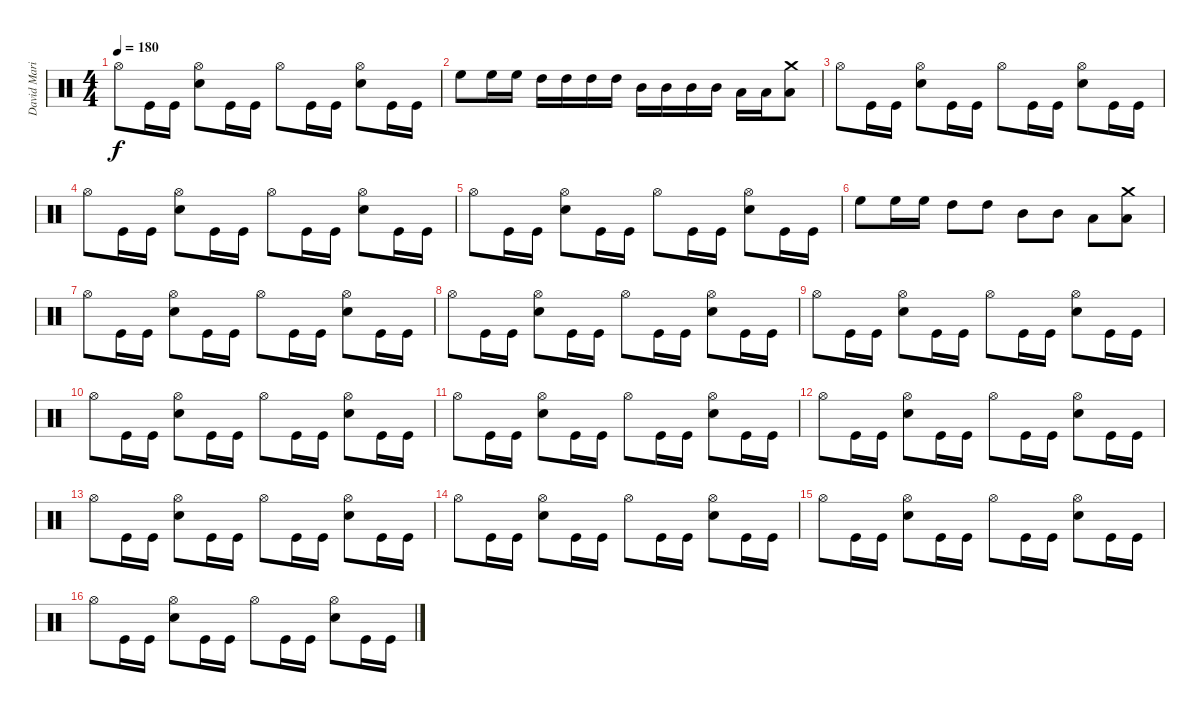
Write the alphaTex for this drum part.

\track ("David Marinero" "David Mari") {instrument percussion}
\staff {score}
\articulation defaults
\ts (4 4)
\tempo 180
\clef neutral
\ks c "Hi-Hat (open)".8{dy f} "Kick (hit)".16 "Kick (hit)".16
("Hi-Hat (open)" "Snare (hit) 2").8 "Kick (hit)".16 "Kick (hit)".16 "Hi-Hat (open)".8 "Kick (hit)".16 "Kick (hit)".16 ("Hi-Hat (open)" "Snare (hit) 2").8 "Kick (hit)".16 "Kick (hit)".16 |
"High Floor Tom (hit)".8 "High Floor Tom (hit)".16 "High Floor Tom (hit)".16 "High Tom (hit)".16 "High Tom (hit)".16 "High Tom (hit)".16 "High Tom (hit)".16 "Mid Tom (hit)".16 "Mid Tom (hit)".16 "Mid Tom (hit)".16 "Mid Tom (hit)".16 "Low Tom (hit)".16 "Low Tom (hit)".16 ("Crash medium (hit)" "Low Tom (hit)").8 |
"Hi-Hat (open)".8 "Kick (hit)".16 "Kick (hit)".16 ("Hi-Hat (open)" "Snare (hit) 2").8 "Kick (hit)".16 "Kick (hit)".16 "Hi-Hat (open)".8 "Kick (hit)".16 "Kick (hit)".16 ("Hi-Hat (open)" "Snare (hit) 2").8 "Kick (hit)".16 "Kick (hit)".16 |
"Hi-Hat (open)".8 "Kick (hit)".16 "Kick (hit)".16 ("Hi-Hat (open)" "Snare (hit) 2").8 "Kick (hit)".16 "Kick (hit)".16 "Hi-Hat (open)".8 "Kick (hit)".16 "Kick (hit)".16 ("Hi-Hat (open)" "Snare (hit) 2").8 "Kick (hit)".16 "Kick (hit)".16 |
"Hi-Hat (open)".8 "Kick (hit)".16 "Kick (hit)".16 ("Hi-Hat (open)" "Snare (hit) 2").8 "Kick (hit)".16 "Kick (hit)".16 "Hi-Hat (open)".8 "Kick (hit)".16 "Kick (hit)".16 ("Hi-Hat (open)" "Snare (hit) 2").8 "Kick (hit)".16 "Kick (hit)".16 |
"High Floor Tom (hit)".8 "High Floor Tom (hit)".16 "High Floor Tom (hit)".16 "High Tom (hit)".8 "High Tom (hit)".8 "Mid Tom (hit)".8 "Mid Tom (hit)".8 "Low Tom (hit)".8 ("Crash medium (hit)" "Low Tom (hit)").8 |
"Hi-Hat (open)".8 "Kick (hit)".16 "Kick (hit)".16 ("Hi-Hat (open)" "Snare (hit) 2").8 "Kick (hit)".16 "Kick (hit)".16 "Hi-Hat (open)".8 "Kick (hit)".16 "Kick (hit)".16 ("Hi-Hat (open)" "Snare (hit) 2").8 "Kick (hit)".16 "Kick (hit)".16 |
"Hi-Hat (open)".8 "Kick (hit)".16 "Kick (hit)".16 ("Hi-Hat (open)" "Snare (hit) 2").8 "Kick (hit)".16 "Kick (hit)".16 "Hi-Hat (open)".8 "Kick (hit)".16 "Kick (hit)".16 ("Hi-Hat (open)" "Snare (hit) 2").8 "Kick (hit)".16 "Kick (hit)".16 |
"Hi-Hat (open)".8 "Kick (hit)".16 "Kick (hit)".16 ("Hi-Hat (open)" "Snare (hit) 2").8 "Kick (hit)".16 "Kick (hit)".16 "Hi-Hat (open)".8 "Kick (hit)".16 "Kick (hit)".16 ("Hi-Hat (open)" "Snare (hit) 2").8 "Kick (hit)".16 "Kick (hit)".16 |
"Hi-Hat (open)".8 "Kick (hit)".16 "Kick (hit)".16 ("Hi-Hat (open)" "Snare (hit) 2").8 "Kick (hit)".16 "Kick (hit)".16 "Hi-Hat (open)".8 "Kick (hit)".16 "Kick (hit)".16 ("Hi-Hat (open)" "Snare (hit) 2").8 "Kick (hit)".16 "Kick (hit)".16 |
"Hi-Hat (open)".8 "Kick (hit)".16 "Kick (hit)".16 ("Hi-Hat (open)" "Snare (hit) 2").8 "Kick (hit)".16 "Kick (hit)".16 "Hi-Hat (open)".8 "Kick (hit)".16 "Kick (hit)".16 ("Hi-Hat (open)" "Snare (hit) 2").8 "Kick (hit)".16 "Kick (hit)".16 |
"Hi-Hat (open)".8 "Kick (hit)".16 "Kick (hit)".16 ("Hi-Hat (open)" "Snare (hit) 2").8 "Kick (hit)".16 "Kick (hit)".16 "Hi-Hat (open)".8 "Kick (hit)".16 "Kick (hit)".16 ("Hi-Hat (open)" "Snare (hit) 2").8 "Kick (hit)".16 "Kick (hit)".16 |
"Hi-Hat (open)".8 "Kick (hit)".16 "Kick (hit)".16 ("Hi-Hat (open)" "Snare (hit) 2").8 "Kick (hit)".16 "Kick (hit)".16 "Hi-Hat (open)".8 "Kick (hit)".16 "Kick (hit)".16 ("Hi-Hat (open)" "Snare (hit) 2").8 "Kick (hit)".16 "Kick (hit)".16 |
"Hi-Hat (open)".8 "Kick (hit)".16 "Kick (hit)".16 ("Hi-Hat (open)" "Snare (hit) 2").8 "Kick (hit)".16 "Kick (hit)".16 "Hi-Hat (open)".8 "Kick (hit)".16 "Kick (hit)".16 ("Hi-Hat (open)" "Snare (hit) 2").8 "Kick (hit)".16 "Kick (hit)".16 |
"Hi-Hat (open)".8 "Kick (hit)".16 "Kick (hit)".16 ("Hi-Hat (open)" "Snare (hit) 2").8 "Kick (hit)".16 "Kick (hit)".16 "Hi-Hat (open)".8 "Kick (hit)".16 "Kick (hit)".16 ("Hi-Hat (open)" "Snare (hit) 2").8 "Kick (hit)".16 "Kick (hit)".16 |
"Hi-Hat (open)".8 "Kick (hit)".16 "Kick (hit)".16 ("Hi-Hat (open)" "Snare (hit) 2").8 "Kick (hit)".16 "Kick (hit)".16 "Hi-Hat (open)".8 "Kick (hit)".16 "Kick (hit)".16 ("Hi-Hat (open)" "Snare (hit) 2").8 "Kick (hit)".16 "Kick (hit)".16
